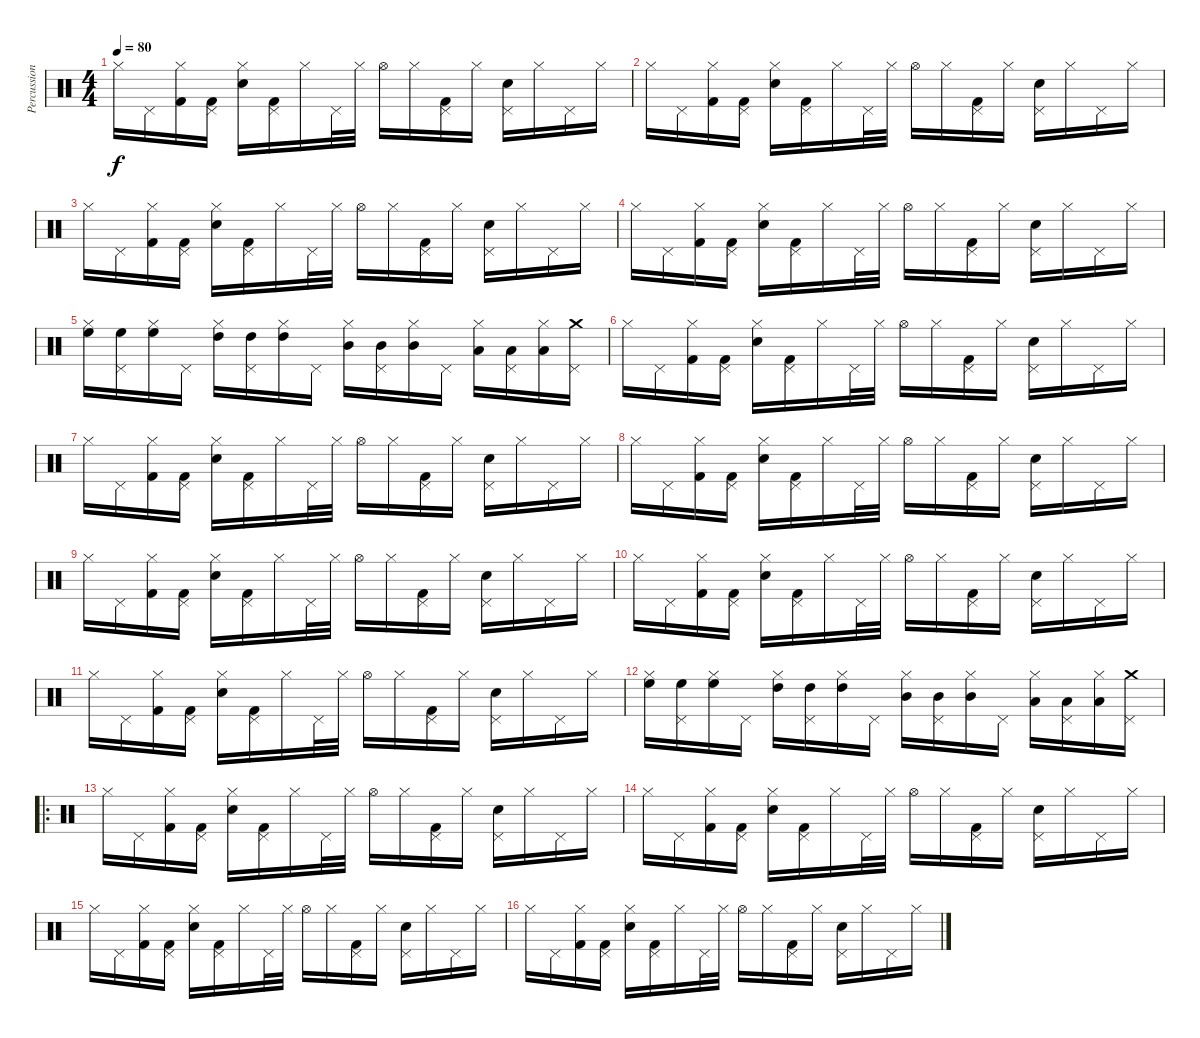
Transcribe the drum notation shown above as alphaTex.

\track ("Percussions" "Percussion") {instrument percussion}
\staff {score}
\articulation defaults
\ts (4 4)
\tempo 80
\clef neutral
\ks c "Hi-Hat (closed)".16{dy f} "Pedal Hi-Hat (hit)".16
("Hi-Hat (closed)" "Kick (hit) 2").16 ("Pedal Hi-Hat (hit)" "Kick (hit) 2").16 ("Hi-Hat (closed)" "Electric Snare (hit)").16 ("Pedal Hi-Hat (hit)" "Kick (hit) 2").16 "Hi-Hat (closed)".16 "Pedal Hi-Hat (hit)".32 "Hi-Hat (closed)".32 "Hi-Hat (open)".16 "Hi-Hat (closed)".16 ("Pedal Hi-Hat (hit)" "Kick (hit) 2").16 "Hi-Hat (closed)".16 ("Pedal Hi-Hat (hit)" "Electric Snare (hit)").16 "Hi-Hat (closed)".16 "Pedal Hi-Hat (hit)".16 "Hi-Hat (closed)".16 |
"Hi-Hat (closed)".16 "Pedal Hi-Hat (hit)".16 ("Hi-Hat (closed)" "Kick (hit) 2").16 ("Pedal Hi-Hat (hit)" "Kick (hit) 2").16 ("Hi-Hat (closed)" "Electric Snare (hit)").16 ("Pedal Hi-Hat (hit)" "Kick (hit) 2").16 "Hi-Hat (closed)".16 "Pedal Hi-Hat (hit)".32 "Hi-Hat (closed)".32 "Hi-Hat (open)".16 "Hi-Hat (closed)".16 ("Pedal Hi-Hat (hit)" "Kick (hit) 2").16 "Hi-Hat (closed)".16 ("Pedal Hi-Hat (hit)" "Electric Snare (hit)").16 "Hi-Hat (closed)".16 "Pedal Hi-Hat (hit)".16 "Hi-Hat (closed)".16 |
"Hi-Hat (closed)".16 "Pedal Hi-Hat (hit)".16 ("Hi-Hat (closed)" "Kick (hit) 2").16 ("Pedal Hi-Hat (hit)" "Kick (hit) 2").16 ("Hi-Hat (closed)" "Electric Snare (hit)").16 ("Pedal Hi-Hat (hit)" "Kick (hit) 2").16 "Hi-Hat (closed)".16 "Pedal Hi-Hat (hit)".32 "Hi-Hat (closed)".32 "Hi-Hat (open)".16 "Hi-Hat (closed)".16 ("Pedal Hi-Hat (hit)" "Kick (hit) 2").16 "Hi-Hat (closed)".16 ("Pedal Hi-Hat (hit)" "Electric Snare (hit)").16 "Hi-Hat (closed)".16 "Pedal Hi-Hat (hit)".16 "Hi-Hat (closed)".16 |
"Hi-Hat (closed)".16 "Pedal Hi-Hat (hit)".16 ("Hi-Hat (closed)" "Kick (hit) 2").16 ("Pedal Hi-Hat (hit)" "Kick (hit) 2").16 ("Hi-Hat (closed)" "Electric Snare (hit)").16 ("Pedal Hi-Hat (hit)" "Kick (hit) 2").16 "Hi-Hat (closed)".16 "Pedal Hi-Hat (hit)".32 "Hi-Hat (closed)".32 "Hi-Hat (open)".16 "Hi-Hat (closed)".16 ("Pedal Hi-Hat (hit)" "Kick (hit) 2").16 "Hi-Hat (closed)".16 ("Pedal Hi-Hat (hit)" "Electric Snare (hit)").16 "Hi-Hat (closed)".16 "Pedal Hi-Hat (hit)".16 "Hi-Hat (closed)".16 |
("Hi-Hat (closed)" "High Floor Tom (hit)").16 ("Pedal Hi-Hat (hit)" "High Floor Tom (hit)").16 ("Hi-Hat (closed)" "High Floor Tom (hit)").16 "Pedal Hi-Hat (hit)".16 ("Hi-Hat (closed)" "High Tom (hit)").16 ("Pedal Hi-Hat (hit)" "High Tom (hit)").16 ("Hi-Hat (closed)" "High Tom (hit)").16 "Pedal Hi-Hat (hit)".16 ("Hi-Hat (closed)" "Mid Tom (hit)").16 ("Pedal Hi-Hat (hit)" "Mid Tom (hit)").16 ("Hi-Hat (closed)" "Mid Tom (hit)").16 "Pedal Hi-Hat (hit)".16 ("Hi-Hat (closed)" "Low Tom (hit)").16 ("Pedal Hi-Hat (hit)" "Low Tom (hit)").16 ("Hi-Hat (closed)" "Low Tom (hit)").16 ("Pedal Hi-Hat (hit)" "Crash medium (hit)").16 |
"Hi-Hat (closed)".16 "Pedal Hi-Hat (hit)".16 ("Hi-Hat (closed)" "Kick (hit) 2").16 ("Pedal Hi-Hat (hit)" "Kick (hit) 2").16 ("Hi-Hat (closed)" "Electric Snare (hit)").16 ("Pedal Hi-Hat (hit)" "Kick (hit) 2").16 "Hi-Hat (closed)".16 "Pedal Hi-Hat (hit)".32 "Hi-Hat (closed)".32 "Hi-Hat (open)".16 "Hi-Hat (closed)".16 ("Pedal Hi-Hat (hit)" "Kick (hit) 2").16 "Hi-Hat (closed)".16 ("Pedal Hi-Hat (hit)" "Electric Snare (hit)").16 "Hi-Hat (closed)".16 "Pedal Hi-Hat (hit)".16 "Hi-Hat (closed)".16 |
"Hi-Hat (closed)".16 "Pedal Hi-Hat (hit)".16 ("Hi-Hat (closed)" "Kick (hit) 2").16 ("Pedal Hi-Hat (hit)" "Kick (hit) 2").16 ("Hi-Hat (closed)" "Electric Snare (hit)").16 ("Pedal Hi-Hat (hit)" "Kick (hit) 2").16 "Hi-Hat (closed)".16 "Pedal Hi-Hat (hit)".32 "Hi-Hat (closed)".32 "Hi-Hat (open)".16 "Hi-Hat (closed)".16 ("Pedal Hi-Hat (hit)" "Kick (hit) 2").16 "Hi-Hat (closed)".16 ("Pedal Hi-Hat (hit)" "Electric Snare (hit)").16 "Hi-Hat (closed)".16 "Pedal Hi-Hat (hit)".16 "Hi-Hat (closed)".16 |
"Hi-Hat (closed)".16 "Pedal Hi-Hat (hit)".16 ("Hi-Hat (closed)" "Kick (hit) 2").16 ("Pedal Hi-Hat (hit)" "Kick (hit) 2").16 ("Hi-Hat (closed)" "Electric Snare (hit)").16 ("Pedal Hi-Hat (hit)" "Kick (hit) 2").16 "Hi-Hat (closed)".16 "Pedal Hi-Hat (hit)".32 "Hi-Hat (closed)".32 "Hi-Hat (open)".16 "Hi-Hat (closed)".16 ("Pedal Hi-Hat (hit)" "Kick (hit) 2").16 "Hi-Hat (closed)".16 ("Pedal Hi-Hat (hit)" "Electric Snare (hit)").16 "Hi-Hat (closed)".16 "Pedal Hi-Hat (hit)".16 "Hi-Hat (closed)".16 |
"Hi-Hat (closed)".16 "Pedal Hi-Hat (hit)".16 ("Hi-Hat (closed)" "Kick (hit) 2").16 ("Pedal Hi-Hat (hit)" "Kick (hit) 2").16 ("Hi-Hat (closed)" "Electric Snare (hit)").16 ("Pedal Hi-Hat (hit)" "Kick (hit) 2").16 "Hi-Hat (closed)".16 "Pedal Hi-Hat (hit)".32 "Hi-Hat (closed)".32 "Hi-Hat (open)".16 "Hi-Hat (closed)".16 ("Pedal Hi-Hat (hit)" "Kick (hit) 2").16 "Hi-Hat (closed)".16 ("Pedal Hi-Hat (hit)" "Electric Snare (hit)").16 "Hi-Hat (closed)".16 "Pedal Hi-Hat (hit)".16 "Hi-Hat (closed)".16 |
"Hi-Hat (closed)".16 "Pedal Hi-Hat (hit)".16 ("Hi-Hat (closed)" "Kick (hit) 2").16 ("Pedal Hi-Hat (hit)" "Kick (hit) 2").16 ("Hi-Hat (closed)" "Electric Snare (hit)").16 ("Pedal Hi-Hat (hit)" "Kick (hit) 2").16 "Hi-Hat (closed)".16 "Pedal Hi-Hat (hit)".32 "Hi-Hat (closed)".32 "Hi-Hat (open)".16 "Hi-Hat (closed)".16 ("Pedal Hi-Hat (hit)" "Kick (hit) 2").16 "Hi-Hat (closed)".16 ("Pedal Hi-Hat (hit)" "Electric Snare (hit)").16 "Hi-Hat (closed)".16 "Pedal Hi-Hat (hit)".16 "Hi-Hat (closed)".16 |
"Hi-Hat (closed)".16 "Pedal Hi-Hat (hit)".16 ("Hi-Hat (closed)" "Kick (hit) 2").16 ("Pedal Hi-Hat (hit)" "Kick (hit) 2").16 ("Hi-Hat (closed)" "Electric Snare (hit)").16 ("Pedal Hi-Hat (hit)" "Kick (hit) 2").16 "Hi-Hat (closed)".16 "Pedal Hi-Hat (hit)".32 "Hi-Hat (closed)".32 "Hi-Hat (open)".16 "Hi-Hat (closed)".16 ("Pedal Hi-Hat (hit)" "Kick (hit) 2").16 "Hi-Hat (closed)".16 ("Pedal Hi-Hat (hit)" "Electric Snare (hit)").16 "Hi-Hat (closed)".16 "Pedal Hi-Hat (hit)".16 "Hi-Hat (closed)".16 |
("Hi-Hat (closed)" "High Floor Tom (hit)").16 ("Pedal Hi-Hat (hit)" "High Floor Tom (hit)").16 ("Hi-Hat (closed)" "High Floor Tom (hit)").16 "Pedal Hi-Hat (hit)".16 ("Hi-Hat (closed)" "High Tom (hit)").16 ("Pedal Hi-Hat (hit)" "High Tom (hit)").16 ("Hi-Hat (closed)" "High Tom (hit)").16 "Pedal Hi-Hat (hit)".16 ("Hi-Hat (closed)" "Mid Tom (hit)").16 ("Pedal Hi-Hat (hit)" "Mid Tom (hit)").16 ("Hi-Hat (closed)" "Mid Tom (hit)").16 "Pedal Hi-Hat (hit)".16 ("Hi-Hat (closed)" "Low Tom (hit)").16 ("Pedal Hi-Hat (hit)" "Low Tom (hit)").16 ("Hi-Hat (closed)" "Low Tom (hit)").16 ("Pedal Hi-Hat (hit)" "Crash medium (hit)").16 |
\ro "Hi-Hat (closed)".16 "Pedal Hi-Hat (hit)".16
("Hi-Hat (closed)" "Kick (hit) 2").16 ("Pedal Hi-Hat (hit)" "Kick (hit) 2").16 ("Hi-Hat (closed)" "Electric Snare (hit)").16 ("Pedal Hi-Hat (hit)" "Kick (hit) 2").16 "Hi-Hat (closed)".16 "Pedal Hi-Hat (hit)".32 "Hi-Hat (closed)".32 "Hi-Hat (open)".16 "Hi-Hat (closed)".16 ("Pedal Hi-Hat (hit)" "Kick (hit) 2").16 "Hi-Hat (closed)".16 ("Pedal Hi-Hat (hit)" "Electric Snare (hit)").16 "Hi-Hat (closed)".16 "Pedal Hi-Hat (hit)".16 "Hi-Hat (closed)".16 |
"Hi-Hat (closed)".16 "Pedal Hi-Hat (hit)".16 ("Hi-Hat (closed)" "Kick (hit) 2").16 ("Pedal Hi-Hat (hit)" "Kick (hit) 2").16 ("Hi-Hat (closed)" "Electric Snare (hit)").16 ("Pedal Hi-Hat (hit)" "Kick (hit) 2").16 "Hi-Hat (closed)".16 "Pedal Hi-Hat (hit)".32 "Hi-Hat (closed)".32 "Hi-Hat (open)".16 "Hi-Hat (closed)".16 ("Pedal Hi-Hat (hit)" "Kick (hit) 2").16 "Hi-Hat (closed)".16 ("Pedal Hi-Hat (hit)" "Electric Snare (hit)").16 "Hi-Hat (closed)".16 "Pedal Hi-Hat (hit)".16 "Hi-Hat (closed)".16 |
"Hi-Hat (closed)".16 "Pedal Hi-Hat (hit)".16 ("Hi-Hat (closed)" "Kick (hit) 2").16 ("Pedal Hi-Hat (hit)" "Kick (hit) 2").16 ("Hi-Hat (closed)" "Electric Snare (hit)").16 ("Pedal Hi-Hat (hit)" "Kick (hit) 2").16 "Hi-Hat (closed)".16 "Pedal Hi-Hat (hit)".32 "Hi-Hat (closed)".32 "Hi-Hat (open)".16 "Hi-Hat (closed)".16 ("Pedal Hi-Hat (hit)" "Kick (hit) 2").16 "Hi-Hat (closed)".16 ("Pedal Hi-Hat (hit)" "Electric Snare (hit)").16 "Hi-Hat (closed)".16 "Pedal Hi-Hat (hit)".16 "Hi-Hat (closed)".16 |
"Hi-Hat (closed)".16 "Pedal Hi-Hat (hit)".16 ("Hi-Hat (closed)" "Kick (hit) 2").16 ("Pedal Hi-Hat (hit)" "Kick (hit) 2").16 ("Hi-Hat (closed)" "Electric Snare (hit)").16 ("Pedal Hi-Hat (hit)" "Kick (hit) 2").16 "Hi-Hat (closed)".16 "Pedal Hi-Hat (hit)".32 "Hi-Hat (closed)".32 "Hi-Hat (open)".16 "Hi-Hat (closed)".16 ("Pedal Hi-Hat (hit)" "Kick (hit) 2").16 "Hi-Hat (closed)".16 ("Pedal Hi-Hat (hit)" "Electric Snare (hit)").16 "Hi-Hat (closed)".16 "Pedal Hi-Hat (hit)".16 "Hi-Hat (closed)".16
